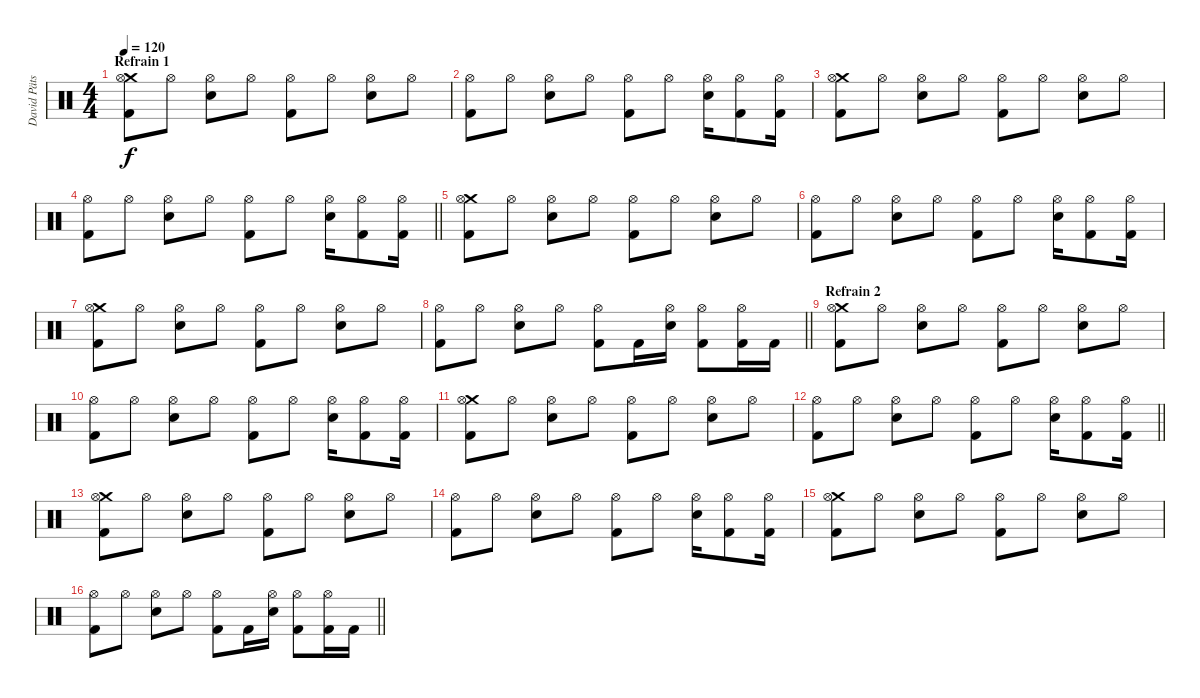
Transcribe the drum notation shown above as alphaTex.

\track ("David Pätsch" "David Päts") {instrument percussion}
\staff {score}
\articulation defaults
\ts (4 4)
\section ("" "Refrain 1")
\tempo 120
\clef neutral
\ks c
("Crash medium (hit)" "Hi-Hat (open)" "Kick (hit) 2").8{dy f} "Hi-Hat (open)".8 ("Hi-Hat (open)" "Snare (hit) 2").8 "Hi-Hat (open)".8 ("Hi-Hat (open)" "Kick (hit) 2").8 "Hi-Hat (open)".8 ("Hi-Hat (open)" "Snare (hit) 2").8 "Hi-Hat (open)".8 |
("Hi-Hat (open)" "Kick (hit) 2").8 "Hi-Hat (open)".8 ("Hi-Hat (open)" "Snare (hit) 2").8 "Hi-Hat (open)".8 ("Hi-Hat (open)" "Kick (hit) 2").8 "Hi-Hat (open)".8 ("Hi-Hat (open)" "Snare (hit) 2").16 ("Hi-Hat (open)" "Kick (hit) 2").8 ("Hi-Hat (open)" "Kick (hit) 2").16 |
("Crash medium (hit)" "Hi-Hat (open)" "Kick (hit) 2").8 "Hi-Hat (open)".8 ("Hi-Hat (open)" "Snare (hit) 2").8 "Hi-Hat (open)".8 ("Hi-Hat (open)" "Kick (hit) 2").8 "Hi-Hat (open)".8 ("Hi-Hat (open)" "Snare (hit) 2").8 "Hi-Hat (open)".8 |
\barLineRight lightlight
("Hi-Hat (open)" "Kick (hit) 2").8 "Hi-Hat (open)".8 ("Hi-Hat (open)" "Snare (hit) 2").8 "Hi-Hat (open)".8 ("Hi-Hat (open)" "Kick (hit) 2").8 "Hi-Hat (open)".8 ("Hi-Hat (open)" "Snare (hit) 2").16 ("Hi-Hat (open)" "Kick (hit) 2").8 ("Hi-Hat (open)" "Kick (hit) 2").16 |
("Crash medium (hit)" "Hi-Hat (open)" "Kick (hit) 2").8 "Hi-Hat (open)".8 ("Hi-Hat (open)" "Snare (hit) 2").8 "Hi-Hat (open)".8 ("Hi-Hat (open)" "Kick (hit) 2").8 "Hi-Hat (open)".8 ("Hi-Hat (open)" "Snare (hit) 2").8 "Hi-Hat (open)".8 |
("Hi-Hat (open)" "Kick (hit) 2").8 "Hi-Hat (open)".8 ("Hi-Hat (open)" "Snare (hit) 2").8 "Hi-Hat (open)".8 ("Hi-Hat (open)" "Kick (hit) 2").8 "Hi-Hat (open)".8 ("Hi-Hat (open)" "Snare (hit) 2").16 ("Hi-Hat (open)" "Kick (hit) 2").8 ("Hi-Hat (open)" "Kick (hit) 2").16 |
("Crash medium (hit)" "Hi-Hat (open)" "Kick (hit) 2").8 "Hi-Hat (open)".8 ("Hi-Hat (open)" "Snare (hit) 2").8 "Hi-Hat (open)".8 ("Hi-Hat (open)" "Kick (hit) 2").8 "Hi-Hat (open)".8 ("Hi-Hat (open)" "Snare (hit) 2").8 "Hi-Hat (open)".8 |
\barLineRight lightlight
("Hi-Hat (open)" "Kick (hit) 2").8 "Hi-Hat (open)".8 ("Hi-Hat (open)" "Snare (hit) 2").8 "Hi-Hat (open)".8 ("Hi-Hat (open)" "Kick (hit) 2").8 "Kick (hit) 2".16 ("Hi-Hat (open)" "Snare (hit) 2").16 ("Hi-Hat (open)" "Kick (hit) 2").8 ("Hi-Hat (open)" "Kick (hit) 2").16 "Kick (hit) 2".16 |
\section ("" "Refrain 2")
("Crash medium (hit)" "Hi-Hat (open)" "Kick (hit) 2").8 "Hi-Hat (open)".8 ("Hi-Hat (open)" "Snare (hit) 2").8 "Hi-Hat (open)".8 ("Hi-Hat (open)" "Kick (hit) 2").8 "Hi-Hat (open)".8 ("Hi-Hat (open)" "Snare (hit) 2").8 "Hi-Hat (open)".8 |
("Hi-Hat (open)" "Kick (hit) 2").8 "Hi-Hat (open)".8 ("Hi-Hat (open)" "Snare (hit) 2").8 "Hi-Hat (open)".8 ("Hi-Hat (open)" "Kick (hit) 2").8 "Hi-Hat (open)".8 ("Hi-Hat (open)" "Snare (hit) 2").16 ("Hi-Hat (open)" "Kick (hit) 2").8 ("Hi-Hat (open)" "Kick (hit) 2").16 |
("Crash medium (hit)" "Hi-Hat (open)" "Kick (hit) 2").8 "Hi-Hat (open)".8 ("Hi-Hat (open)" "Snare (hit) 2").8 "Hi-Hat (open)".8 ("Hi-Hat (open)" "Kick (hit) 2").8 "Hi-Hat (open)".8 ("Hi-Hat (open)" "Snare (hit) 2").8 "Hi-Hat (open)".8 |
\barLineRight lightlight
("Hi-Hat (open)" "Kick (hit) 2").8 "Hi-Hat (open)".8 ("Hi-Hat (open)" "Snare (hit) 2").8 "Hi-Hat (open)".8 ("Hi-Hat (open)" "Kick (hit) 2").8 "Hi-Hat (open)".8 ("Hi-Hat (open)" "Snare (hit) 2").16 ("Hi-Hat (open)" "Kick (hit) 2").8 ("Hi-Hat (open)" "Kick (hit) 2").16 |
("Crash medium (hit)" "Hi-Hat (open)" "Kick (hit) 2").8 "Hi-Hat (open)".8 ("Hi-Hat (open)" "Snare (hit) 2").8 "Hi-Hat (open)".8 ("Hi-Hat (open)" "Kick (hit) 2").8 "Hi-Hat (open)".8 ("Hi-Hat (open)" "Snare (hit) 2").8 "Hi-Hat (open)".8 |
("Hi-Hat (open)" "Kick (hit) 2").8 "Hi-Hat (open)".8 ("Hi-Hat (open)" "Snare (hit) 2").8 "Hi-Hat (open)".8 ("Hi-Hat (open)" "Kick (hit) 2").8 "Hi-Hat (open)".8 ("Hi-Hat (open)" "Snare (hit) 2").16 ("Hi-Hat (open)" "Kick (hit) 2").8 ("Hi-Hat (open)" "Kick (hit) 2").16 |
("Crash medium (hit)" "Hi-Hat (open)" "Kick (hit) 2").8 "Hi-Hat (open)".8 ("Hi-Hat (open)" "Snare (hit) 2").8 "Hi-Hat (open)".8 ("Hi-Hat (open)" "Kick (hit) 2").8 "Hi-Hat (open)".8 ("Hi-Hat (open)" "Snare (hit) 2").8 "Hi-Hat (open)".8 |
\barLineRight lightlight
("Hi-Hat (open)" "Kick (hit) 2").8 "Hi-Hat (open)".8 ("Hi-Hat (open)" "Snare (hit) 2").8 "Hi-Hat (open)".8 ("Hi-Hat (open)" "Kick (hit) 2").8 "Kick (hit) 2".16 ("Hi-Hat (open)" "Snare (hit) 2").16 ("Hi-Hat (open)" "Kick (hit) 2").8 ("Hi-Hat (open)" "Kick (hit) 2").16 "Kick (hit) 2".16
